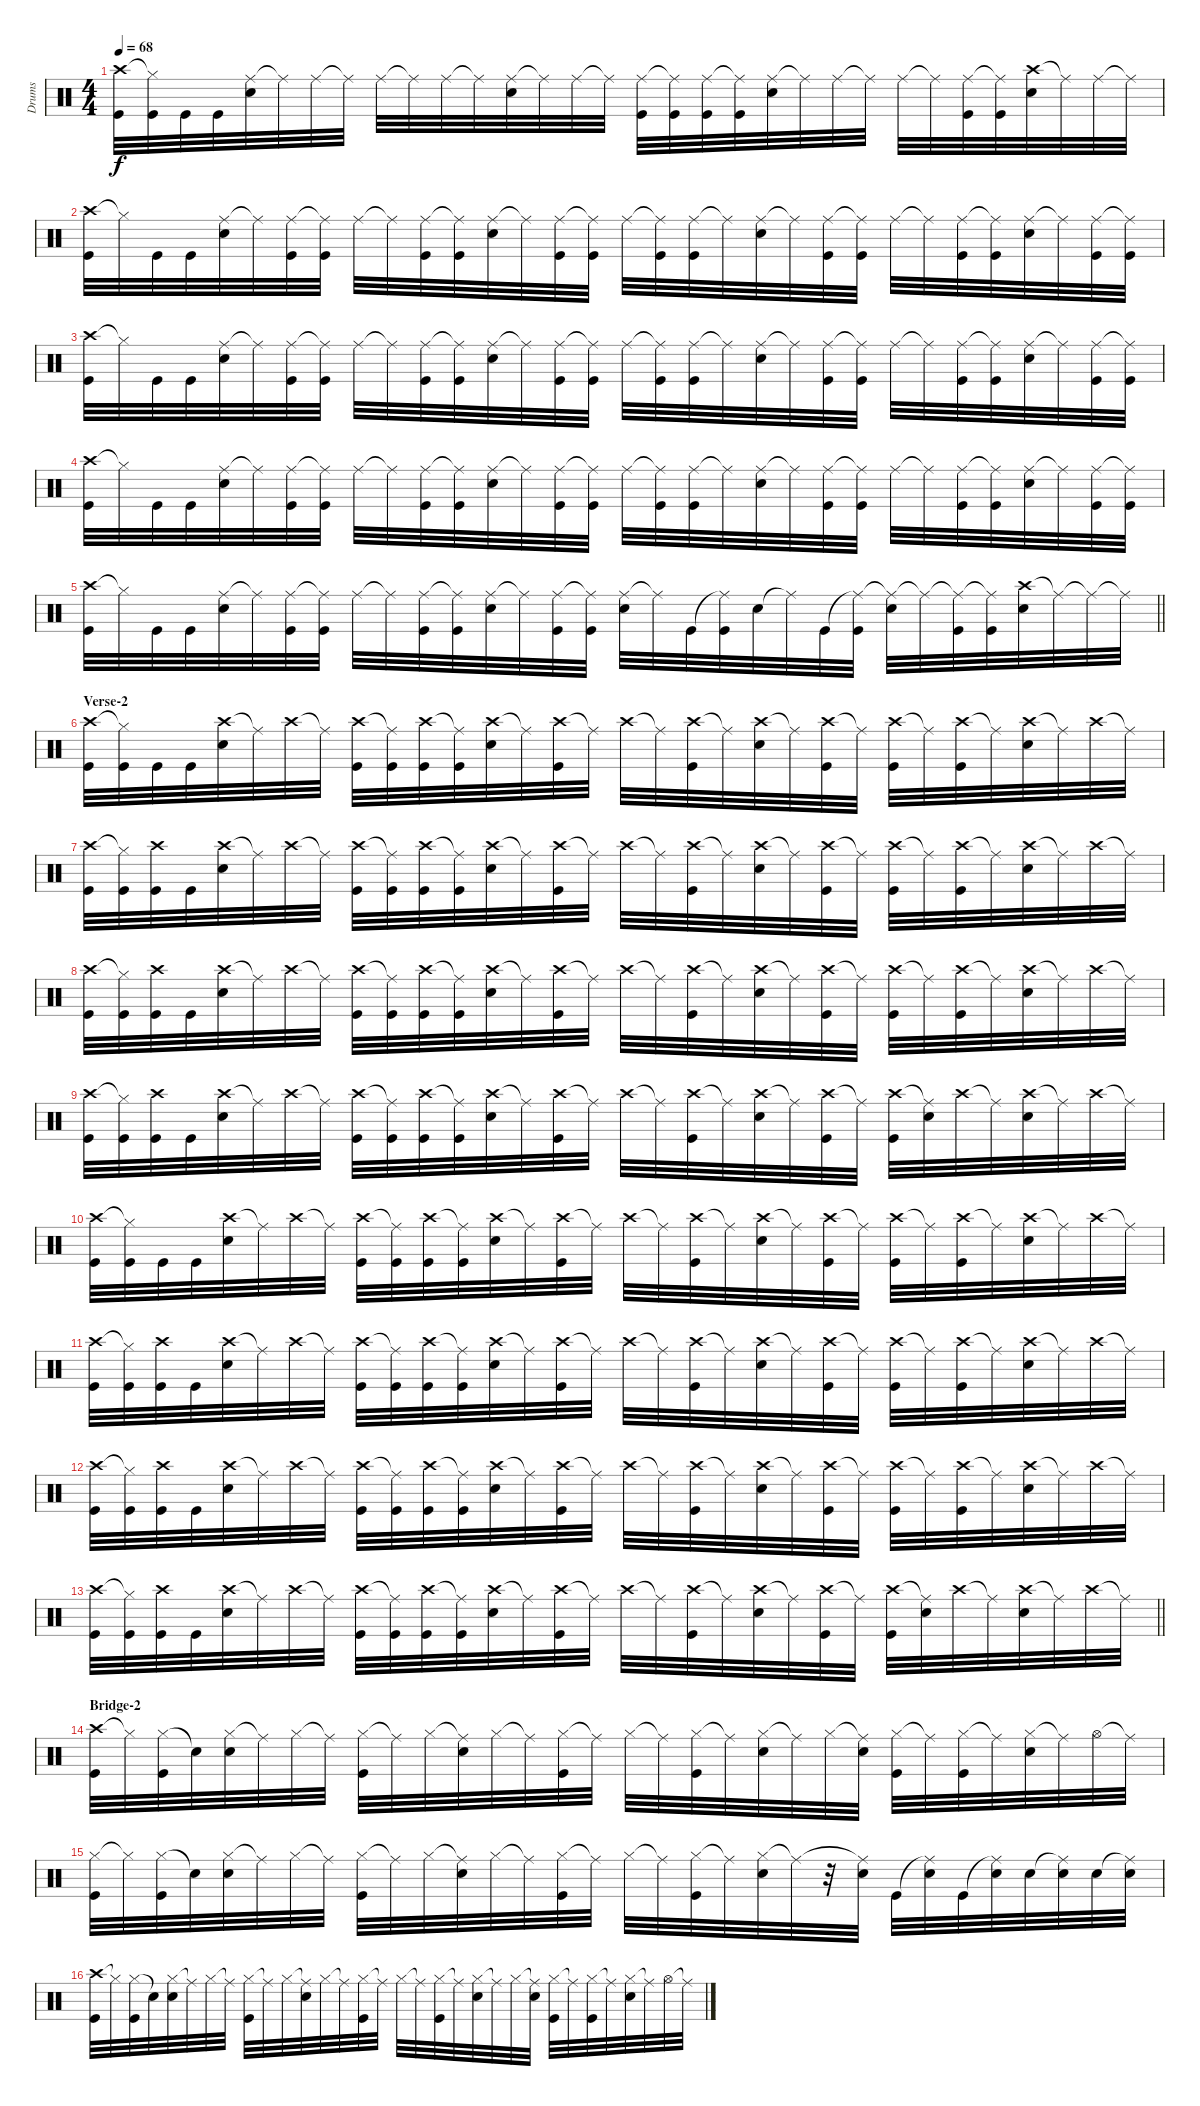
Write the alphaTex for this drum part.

\track ("Drums" "Drums") {instrument percussion}
\staff {score}
\articulation defaults
\ts (4 4)
\tempo 68
\clef neutral
\ks c
("Crash high (hit)" "Kick (hit)").32{dy f} ("Hi-Hat (closed)"{t} "Kick (hit)").32 "Kick (hit)".32 "Kick (hit)".32 ("Ride (middle)" "Electric Snare (hit)").32 "Ride (middle)"{t}.32 "Ride (middle)".32 "Ride (middle)"{t}.32 "Ride (middle)".32 "Ride (middle)"{t}.32 "Ride (middle)".32 "Ride (middle)"{t}.32 ("Ride (middle)" "Electric Snare (hit)").32 "Ride (middle)"{t}.32 "Ride (middle)".32 "Ride (middle)"{t}.32 ("Ride (middle)" "Kick (hit)").32 ("Ride (middle)"{t} "Kick (hit)").32 ("Ride (middle)" "Kick (hit)").32 ("Ride (middle)"{t} "Kick (hit)").32 ("Ride (middle)" "Electric Snare (hit)").32 "Ride (middle)"{t}.32 "Ride (middle)".32 "Ride (middle)"{t}.32 "Ride (middle)".32 "Ride (middle)"{t}.32 ("Ride (middle)" "Kick (hit)").32 ("Ride (middle)"{t} "Kick (hit)").32 ("Crash high (hit)" "Electric Snare (hit)").32 "Ride (middle)"{t}.32 "Ride (middle)".32 "Ride (middle)"{t}.32 |
("Crash high (hit)" "Kick (hit)").32 "Hi-Hat (closed)"{t}.32 "Kick (hit)".32 "Kick (hit)".32 ("Ride (middle)" "Electric Snare (hit)").32 "Ride (middle)"{t}.32 ("Ride (middle)" "Kick (hit)").32 ("Ride (middle)"{t} "Kick (hit)").32 "Ride (middle)".32 "Ride (middle)"{t}.32 ("Ride (middle)" "Kick (hit)").32 ("Ride (middle)"{t} "Kick (hit)").32 ("Ride (middle)" "Electric Snare (hit)").32 "Ride (middle)"{t}.32 ("Ride (middle)" "Kick (hit)").32 ("Ride (middle)"{t} "Kick (hit)").32 "Ride (middle)".32 ("Ride (middle)"{t} "Kick (hit)").32 ("Ride (middle)" "Kick (hit)").32 "Ride (middle)"{t}.32 ("Ride (middle)" "Electric Snare (hit)").32 "Ride (middle)"{t}.32 ("Ride (middle)" "Kick (hit)").32 ("Ride (middle)"{t} "Kick (hit)").32 "Ride (middle)".32 "Ride (middle)"{t}.32 ("Ride (middle)" "Kick (hit)").32 ("Ride (middle)"{t} "Kick (hit)").32 ("Ride (middle)" "Electric Snare (hit)").32 "Ride (middle)"{t}.32 ("Ride (middle)" "Kick (hit)").32 ("Ride (middle)"{t} "Kick (hit)").32 |
("Crash high (hit)" "Kick (hit)").32 "Hi-Hat (closed)"{t}.32 "Kick (hit)".32 "Kick (hit)".32 ("Ride (middle)" "Electric Snare (hit)").32 "Ride (middle)"{t}.32 ("Ride (middle)" "Kick (hit)").32 ("Ride (middle)"{t} "Kick (hit)").32 "Ride (middle)".32 "Ride (middle)"{t}.32 ("Ride (middle)" "Kick (hit)").32 ("Ride (middle)"{t} "Kick (hit)").32 ("Ride (middle)" "Electric Snare (hit)").32 "Ride (middle)"{t}.32 ("Ride (middle)" "Kick (hit)").32 ("Ride (middle)"{t} "Kick (hit)").32 "Ride (middle)".32 ("Ride (middle)"{t} "Kick (hit)").32 ("Ride (middle)" "Kick (hit)").32 "Ride (middle)"{t}.32 ("Ride (middle)" "Electric Snare (hit)").32 "Ride (middle)"{t}.32 ("Ride (middle)" "Kick (hit)").32 ("Ride (middle)"{t} "Kick (hit)").32 "Ride (middle)".32 "Ride (middle)"{t}.32 ("Ride (middle)" "Kick (hit)").32 ("Ride (middle)"{t} "Kick (hit)").32 ("Ride (middle)" "Electric Snare (hit)").32 "Ride (middle)"{t}.32 ("Ride (middle)" "Kick (hit)").32 ("Ride (middle)"{t} "Kick (hit)").32 |
("Crash high (hit)" "Kick (hit)").32 "Hi-Hat (closed)"{t}.32 "Kick (hit)".32 "Kick (hit)".32 ("Ride (middle)" "Electric Snare (hit)").32 "Ride (middle)"{t}.32 ("Ride (middle)" "Kick (hit)").32 ("Ride (middle)"{t} "Kick (hit)").32 "Ride (middle)".32 "Ride (middle)"{t}.32 ("Ride (middle)" "Kick (hit)").32 ("Ride (middle)"{t} "Kick (hit)").32 ("Ride (middle)" "Electric Snare (hit)").32 "Ride (middle)"{t}.32 ("Ride (middle)" "Kick (hit)").32 ("Ride (middle)"{t} "Kick (hit)").32 "Ride (middle)".32 ("Ride (middle)"{t} "Kick (hit)").32 ("Ride (middle)" "Kick (hit)").32 "Ride (middle)"{t}.32 ("Ride (middle)" "Electric Snare (hit)").32 "Ride (middle)"{t}.32 ("Ride (middle)" "Kick (hit)").32 ("Ride (middle)"{t} "Kick (hit)").32 "Ride (middle)".32 "Ride (middle)"{t}.32 ("Ride (middle)" "Kick (hit)").32 ("Ride (middle)"{t} "Kick (hit)").32 ("Ride (middle)" "Electric Snare (hit)").32 "Ride (middle)"{t}.32 ("Ride (middle)" "Kick (hit)").32 ("Ride (middle)"{t} "Kick (hit)").32 |
\barLineRight lightlight
("Crash high (hit)" "Kick (hit)").32 "Hi-Hat (closed)"{t}.32 "Kick (hit)".32 "Kick (hit)".32 ("Ride (middle)" "Electric Snare (hit)").32 "Ride (middle)"{t}.32 ("Ride (middle)" "Kick (hit)").32 ("Ride (middle)"{t} "Kick (hit)").32 "Ride (middle)".32 "Ride (middle)"{t}.32 ("Ride (middle)" "Kick (hit)").32 ("Ride (middle)"{t} "Kick (hit)").32 ("Ride (middle)" "Electric Snare (hit)").32 "Ride (middle)"{t}.32 ("Ride (middle)" "Kick (hit)").32 ("Ride (middle)"{t} "Kick (hit)").32 ("Ride (middle)" "Electric Snare (hit)").32 "Ride (middle)"{t}.32 "Kick (hit)".32 ("Ride (middle)"{t} "Kick (hit)").32 "Electric Snare (hit)".32 "Ride (middle)"{t}.32 "Kick (hit)".32 ("Ride (middle)"{t} "Kick (hit)").32 ("Ride (middle)"{t} "Electric Snare (hit)").32 "Ride (middle)"{t}.32 ("Ride (middle)"{t} "Kick (hit)").32 ("Ride (middle)"{t} "Kick (hit)").32 ("Crash high (hit)" "Electric Snare (hit)").32 "Ride (middle)"{t}.32 "Ride (middle)"{t}.32 "Ride (middle)"{t}.32 |
\section ("" "Verse-2")
("Crash high (hit)" "Kick (hit)").32 ("Hi-Hat (closed)"{t} "Kick (hit)").32 "Kick (hit)".32 "Kick (hit)".32 ("Crash high (hit)" "Electric Snare (hit)").32 "Ride (middle)"{t}.32 "Crash high (hit)".32 "Ride (middle)"{t}.32 ("Crash high (hit)" "Kick (hit)").32 ("Ride (middle)"{t} "Kick (hit)").32 ("Crash high (hit)" "Kick (hit)").32 ("Ride (middle)"{t} "Kick (hit)").32 ("Crash high (hit)" "Electric Snare (hit)").32 "Ride (middle)"{t}.32 ("Crash high (hit)" "Kick (hit)").32 "Ride (middle)"{t}.32 "Crash high (hit)".32 "Ride (middle)"{t}.32 ("Crash high (hit)" "Kick (hit)").32 "Ride (middle)"{t}.32 ("Crash high (hit)" "Electric Snare (hit)").32 "Ride (middle)"{t}.32 ("Crash high (hit)" "Kick (hit)").32 "Ride (middle)"{t}.32 ("Crash high (hit)" "Kick (hit)").32 "Ride (middle)"{t}.32 ("Crash high (hit)" "Kick (hit)").32 "Ride (middle)"{t}.32 ("Crash high (hit)" "Electric Snare (hit)").32 "Ride (middle)"{t}.32 "Crash high (hit)".32 "Ride (middle)"{t}.32 |
("Crash high (hit)" "Kick (hit)").32 ("Hi-Hat (closed)"{t} "Kick (hit)").32 ("Crash high (hit)" "Kick (hit)").32 "Kick (hit)".32 ("Crash high (hit)" "Electric Snare (hit)").32 "Ride (middle)"{t}.32 "Crash high (hit)".32 "Ride (middle)"{t}.32 ("Crash high (hit)" "Kick (hit)").32 ("Ride (middle)"{t} "Kick (hit)").32 ("Crash high (hit)" "Kick (hit)").32 ("Ride (middle)"{t} "Kick (hit)").32 ("Crash high (hit)" "Electric Snare (hit)").32 "Ride (middle)"{t}.32 ("Crash high (hit)" "Kick (hit)").32 "Ride (middle)"{t}.32 "Crash high (hit)".32 "Ride (middle)"{t}.32 ("Crash high (hit)" "Kick (hit)").32 "Ride (middle)"{t}.32 ("Crash high (hit)" "Electric Snare (hit)").32 "Ride (middle)"{t}.32 ("Crash high (hit)" "Kick (hit)").32 "Ride (middle)"{t}.32 ("Crash high (hit)" "Kick (hit)").32 "Ride (middle)"{t}.32 ("Crash high (hit)" "Kick (hit)").32 "Ride (middle)"{t}.32 ("Crash high (hit)" "Electric Snare (hit)").32 "Ride (middle)"{t}.32 "Crash high (hit)".32 "Ride (middle)"{t}.32 |
("Crash high (hit)" "Kick (hit)").32 ("Hi-Hat (closed)"{t} "Kick (hit)").32 ("Crash high (hit)" "Kick (hit)").32 "Kick (hit)".32 ("Crash high (hit)" "Electric Snare (hit)").32 "Ride (middle)"{t}.32 "Crash high (hit)".32 "Ride (middle)"{t}.32 ("Crash high (hit)" "Kick (hit)").32 ("Ride (middle)"{t} "Kick (hit)").32 ("Crash high (hit)" "Kick (hit)").32 ("Ride (middle)"{t} "Kick (hit)").32 ("Crash high (hit)" "Electric Snare (hit)").32 "Ride (middle)"{t}.32 ("Crash high (hit)" "Kick (hit)").32 "Ride (middle)"{t}.32 "Crash high (hit)".32 "Ride (middle)"{t}.32 ("Crash high (hit)" "Kick (hit)").32 "Ride (middle)"{t}.32 ("Crash high (hit)" "Electric Snare (hit)").32 "Ride (middle)"{t}.32 ("Crash high (hit)" "Kick (hit)").32 "Ride (middle)"{t}.32 ("Crash high (hit)" "Kick (hit)").32 "Ride (middle)"{t}.32 ("Crash high (hit)" "Kick (hit)").32 "Ride (middle)"{t}.32 ("Crash high (hit)" "Electric Snare (hit)").32 "Ride (middle)"{t}.32 "Crash high (hit)".32 "Ride (middle)"{t}.32 |
("Crash high (hit)" "Kick (hit)").32 ("Hi-Hat (closed)"{t} "Kick (hit)").32 ("Crash high (hit)" "Kick (hit)").32 "Kick (hit)".32 ("Crash high (hit)" "Electric Snare (hit)").32 "Ride (middle)"{t}.32 "Crash high (hit)".32 "Ride (middle)"{t}.32 ("Crash high (hit)" "Kick (hit)").32 ("Ride (middle)"{t} "Kick (hit)").32 ("Crash high (hit)" "Kick (hit)").32 ("Ride (middle)"{t} "Kick (hit)").32 ("Crash high (hit)" "Electric Snare (hit)").32 "Ride (middle)"{t}.32 ("Crash high (hit)" "Kick (hit)").32 "Ride (middle)"{t}.32 "Crash high (hit)".32 "Ride (middle)"{t}.32 ("Crash high (hit)" "Kick (hit)").32 "Ride (middle)"{t}.32 ("Crash high (hit)" "Electric Snare (hit)").32 "Ride (middle)"{t}.32 ("Crash high (hit)" "Kick (hit)").32 "Ride (middle)"{t}.32 ("Crash high (hit)" "Kick (hit)").32 ("Ride (middle)"{t} "Electric Snare (hit)").32 "Crash high (hit)".32 "Ride (middle)"{t}.32 ("Crash high (hit)" "Electric Snare (hit)").32 "Ride (middle)"{t}.32 "Crash high (hit)".32 "Ride (middle)"{t}.32 |
("Crash high (hit)" "Kick (hit)").32 ("Hi-Hat (closed)"{t} "Kick (hit)").32 "Kick (hit)".32 "Kick (hit)".32 ("Crash high (hit)" "Electric Snare (hit)").32 "Ride (middle)"{t}.32 "Crash high (hit)".32 "Ride (middle)"{t}.32 ("Crash high (hit)" "Kick (hit)").32 ("Ride (middle)"{t} "Kick (hit)").32 ("Crash high (hit)" "Kick (hit)").32 ("Ride (middle)"{t} "Kick (hit)").32 ("Crash high (hit)" "Electric Snare (hit)").32 "Ride (middle)"{t}.32 ("Crash high (hit)" "Kick (hit)").32 "Ride (middle)"{t}.32 "Crash high (hit)".32 "Ride (middle)"{t}.32 ("Crash high (hit)" "Kick (hit)").32 "Ride (middle)"{t}.32 ("Crash high (hit)" "Electric Snare (hit)").32 "Ride (middle)"{t}.32 ("Crash high (hit)" "Kick (hit)").32 "Ride (middle)"{t}.32 ("Crash high (hit)" "Kick (hit)").32 "Ride (middle)"{t}.32 ("Crash high (hit)" "Kick (hit)").32 "Ride (middle)"{t}.32 ("Crash high (hit)" "Electric Snare (hit)").32 "Ride (middle)"{t}.32 "Crash high (hit)".32 "Ride (middle)"{t}.32 |
("Crash high (hit)" "Kick (hit)").32 ("Hi-Hat (closed)"{t} "Kick (hit)").32 ("Crash high (hit)" "Kick (hit)").32 "Kick (hit)".32 ("Crash high (hit)" "Electric Snare (hit)").32 "Ride (middle)"{t}.32 "Crash high (hit)".32 "Ride (middle)"{t}.32 ("Crash high (hit)" "Kick (hit)").32 ("Ride (middle)"{t} "Kick (hit)").32 ("Crash high (hit)" "Kick (hit)").32 ("Ride (middle)"{t} "Kick (hit)").32 ("Crash high (hit)" "Electric Snare (hit)").32 "Ride (middle)"{t}.32 ("Crash high (hit)" "Kick (hit)").32 "Ride (middle)"{t}.32 "Crash high (hit)".32 "Ride (middle)"{t}.32 ("Crash high (hit)" "Kick (hit)").32 "Ride (middle)"{t}.32 ("Crash high (hit)" "Electric Snare (hit)").32 "Ride (middle)"{t}.32 ("Crash high (hit)" "Kick (hit)").32 "Ride (middle)"{t}.32 ("Crash high (hit)" "Kick (hit)").32 "Ride (middle)"{t}.32 ("Crash high (hit)" "Kick (hit)").32 "Ride (middle)"{t}.32 ("Crash high (hit)" "Electric Snare (hit)").32 "Ride (middle)"{t}.32 "Crash high (hit)".32 "Ride (middle)"{t}.32 |
("Crash high (hit)" "Kick (hit)").32 ("Hi-Hat (closed)"{t} "Kick (hit)").32 ("Crash high (hit)" "Kick (hit)").32 "Kick (hit)".32 ("Crash high (hit)" "Electric Snare (hit)").32 "Ride (middle)"{t}.32 "Crash high (hit)".32 "Ride (middle)"{t}.32 ("Crash high (hit)" "Kick (hit)").32 ("Ride (middle)"{t} "Kick (hit)").32 ("Crash high (hit)" "Kick (hit)").32 ("Ride (middle)"{t} "Kick (hit)").32 ("Crash high (hit)" "Electric Snare (hit)").32 "Ride (middle)"{t}.32 ("Crash high (hit)" "Kick (hit)").32 "Ride (middle)"{t}.32 "Crash high (hit)".32 "Ride (middle)"{t}.32 ("Crash high (hit)" "Kick (hit)").32 "Ride (middle)"{t}.32 ("Crash high (hit)" "Electric Snare (hit)").32 "Ride (middle)"{t}.32 ("Crash high (hit)" "Kick (hit)").32 "Ride (middle)"{t}.32 ("Crash high (hit)" "Kick (hit)").32 "Ride (middle)"{t}.32 ("Crash high (hit)" "Kick (hit)").32 "Ride (middle)"{t}.32 ("Crash high (hit)" "Electric Snare (hit)").32 "Ride (middle)"{t}.32 "Crash high (hit)".32 "Ride (middle)"{t}.32 |
\barLineRight lightlight
("Crash high (hit)" "Kick (hit)").32 ("Hi-Hat (closed)"{t} "Kick (hit)").32 ("Crash high (hit)" "Kick (hit)").32 "Kick (hit)".32 ("Crash high (hit)" "Electric Snare (hit)").32 "Ride (middle)"{t}.32 "Crash high (hit)".32 "Ride (middle)"{t}.32 ("Crash high (hit)" "Kick (hit)").32 ("Ride (middle)"{t} "Kick (hit)").32 ("Crash high (hit)" "Kick (hit)").32 ("Ride (middle)"{t} "Kick (hit)").32 ("Crash high (hit)" "Electric Snare (hit)").32 "Ride (middle)"{t}.32 ("Crash high (hit)" "Kick (hit)").32 "Ride (middle)"{t}.32 "Crash high (hit)".32 "Ride (middle)"{t}.32 ("Crash high (hit)" "Kick (hit)").32 "Ride (middle)"{t}.32 ("Crash high (hit)" "Electric Snare (hit)").32 "Ride (middle)"{t}.32 ("Crash high (hit)" "Kick (hit)").32 "Ride (middle)"{t}.32 ("Crash high (hit)" "Kick (hit)").32 ("Ride (middle)"{t} "Electric Snare (hit)").32 "Crash high (hit)".32 "Ride (middle)"{t}.32 ("Crash high (hit)" "Electric Snare (hit)").32 "Ride (middle)"{t}.32 "Crash high (hit)".32 "Ride (middle)"{t}.32 |
\section ("" "Bridge-2")
("Crash high (hit)" "Kick (hit)").32 "Hi-Hat (closed)"{t}.32 ("Hi-Hat (closed)" "Kick (hit)").32 "Snare (hit)"{t}.32 ("Hi-Hat (closed)" "Electric Snare (hit)").32 "Ride (middle)"{t}.32 "Hi-Hat (closed)".32 "Ride (middle)"{t}.32 ("Hi-Hat (closed)" "Kick (hit)").32 "Ride (middle)"{t}.32 "Hi-Hat (closed)".32 ("Ride (middle)"{t} "Electric Snare (hit)").32 "Hi-Hat (closed)".32 "Ride (middle)"{t}.32 ("Hi-Hat (closed)" "Kick (hit)").32 "Ride (middle)"{t}.32 "Hi-Hat (closed)".32 "Ride (middle)"{t}.32 ("Hi-Hat (closed)" "Kick (hit)").32 "Ride (middle)"{t}.32 ("Hi-Hat (closed)" "Electric Snare (hit)").32 "Ride (middle)"{t}.32 "Hi-Hat (closed)".32 ("Ride (middle)"{t} "Electric Snare (hit)").32 ("Hi-Hat (closed)" "Kick (hit)").32 "Ride (middle)"{t}.32 ("Hi-Hat (closed)" "Kick (hit)").32 "Ride (middle)"{t}.32 ("Hi-Hat (closed)" "Electric Snare (hit)").32 "Ride (middle)"{t}.32 "Hi-Hat (open)".32 "Ride (middle)"{t}.32 |
("Hi-Hat (closed)" "Kick (hit)").32 "Hi-Hat (closed)"{t}.32 ("Hi-Hat (closed)" "Kick (hit)").32 "Snare (hit)"{t}.32 ("Hi-Hat (closed)" "Electric Snare (hit)").32 "Ride (middle)"{t}.32 "Hi-Hat (closed)".32 "Ride (middle)"{t}.32 ("Hi-Hat (closed)" "Kick (hit)").32 "Ride (middle)"{t}.32 "Hi-Hat (closed)".32 ("Ride (middle)"{t} "Electric Snare (hit)").32 "Hi-Hat (closed)".32 "Ride (middle)"{t}.32 ("Hi-Hat (closed)" "Kick (hit)").32 "Ride (middle)"{t}.32 "Hi-Hat (closed)".32 "Ride (middle)"{t}.32 ("Hi-Hat (closed)" "Kick (hit)").32 "Ride (middle)"{t}.32 ("Hi-Hat (closed)" "Electric Snare (hit)").32 "Ride (middle)"{t}.32 r.32 ("Ride (middle)"{t} "Electric Snare (hit)").32 "Kick (hit)".32 ("Ride (middle)"{t} "Electric Snare (hit)").32 "Kick (hit)".32 ("Ride (middle)"{t} "Electric Snare (hit)").32 "Electric Snare (hit)".32 ("Ride (middle)"{t} "Electric Snare (hit)").32 "Electric Snare (hit)".32 ("Ride (middle)"{t} "Electric Snare (hit)").32 |
("Crash high (hit)" "Kick (hit)").32 "Hi-Hat (closed)"{t}.32 ("Hi-Hat (closed)" "Kick (hit)").32 "Snare (hit)"{t}.32 ("Hi-Hat (closed)" "Electric Snare (hit)").32 "Ride (middle)"{t}.32 "Hi-Hat (closed)".32 "Ride (middle)"{t}.32 ("Hi-Hat (closed)" "Kick (hit)").32 "Ride (middle)"{t}.32 "Hi-Hat (closed)".32 ("Ride (middle)"{t} "Electric Snare (hit)").32 "Hi-Hat (closed)".32 "Ride (middle)"{t}.32 ("Hi-Hat (closed)" "Kick (hit)").32 "Ride (middle)"{t}.32 "Hi-Hat (closed)".32 "Ride (middle)"{t}.32 ("Hi-Hat (closed)" "Kick (hit)").32 "Ride (middle)"{t}.32 ("Hi-Hat (closed)" "Electric Snare (hit)").32 "Ride (middle)"{t}.32 "Hi-Hat (closed)".32 ("Ride (middle)"{t} "Electric Snare (hit)").32 ("Hi-Hat (closed)" "Kick (hit)").32 "Ride (middle)"{t}.32 ("Hi-Hat (closed)" "Kick (hit)").32 "Ride (middle)"{t}.32 ("Hi-Hat (closed)" "Electric Snare (hit)").32 "Ride (middle)"{t}.32 "Hi-Hat (open)".32 "Ride (middle)"{t}.32
